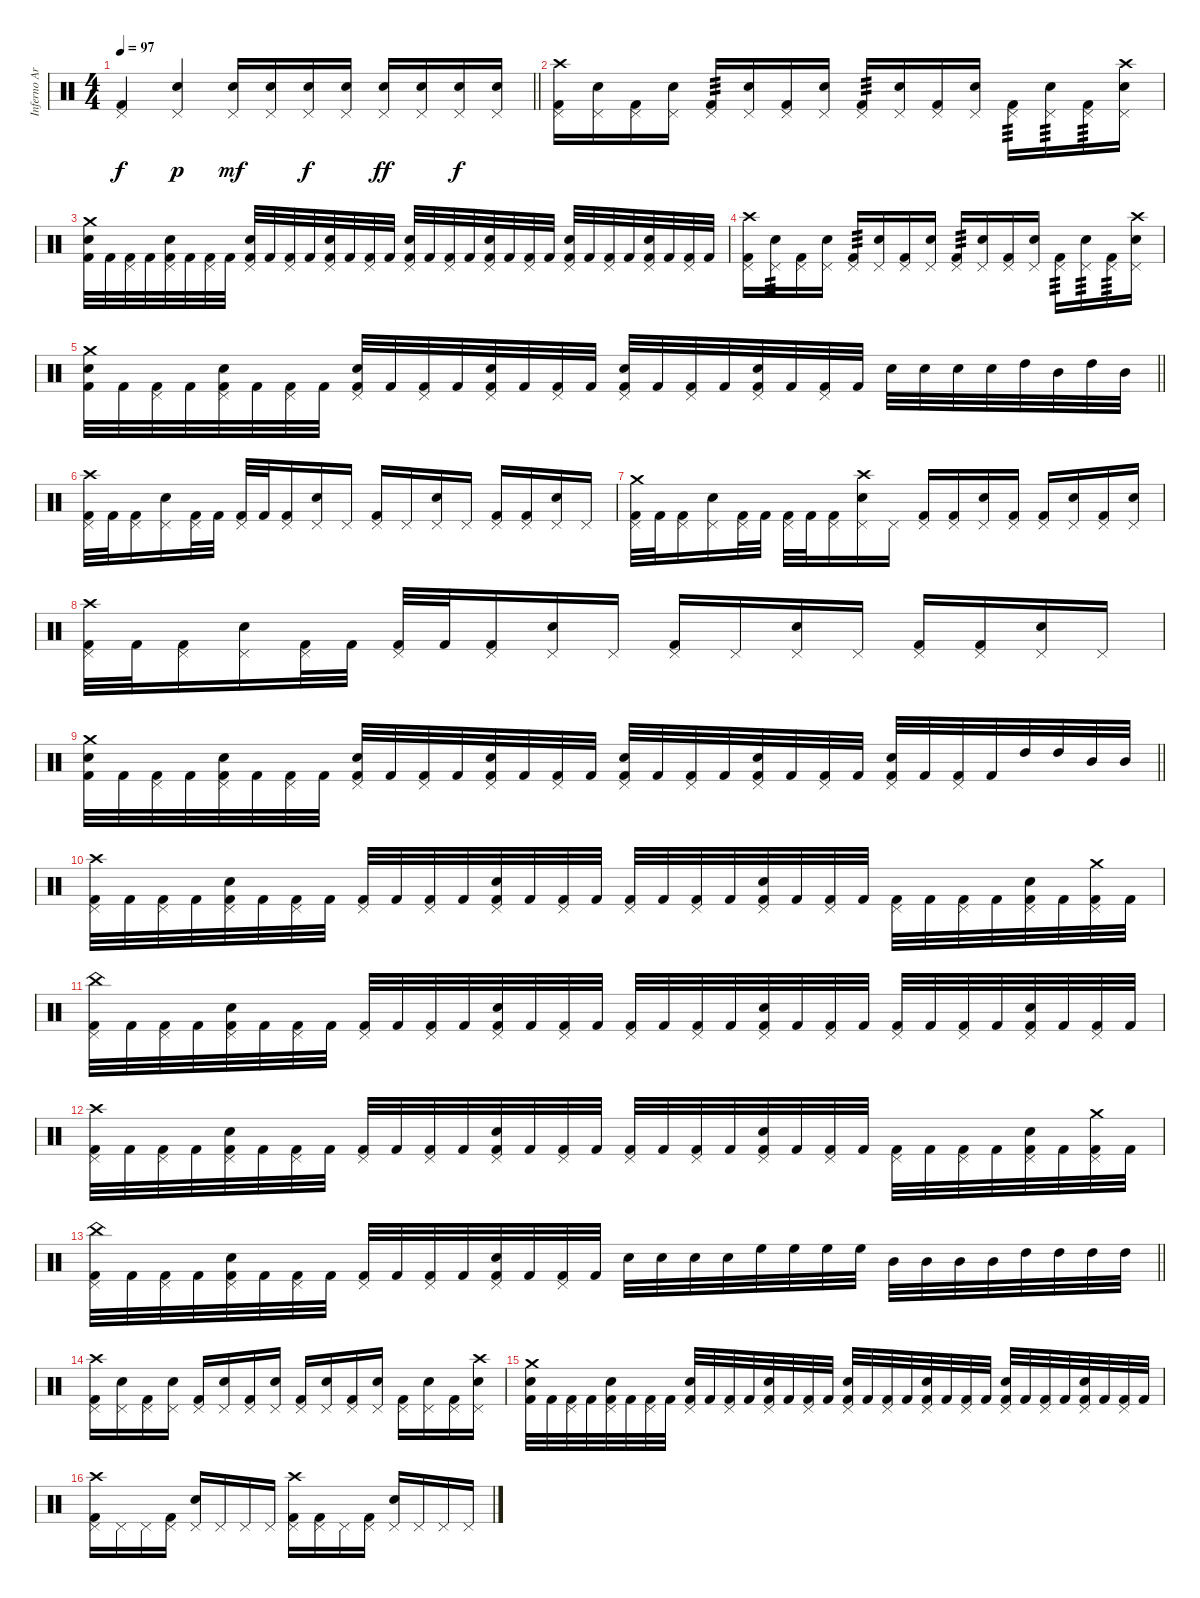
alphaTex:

\track ("Inferno Art" "Inferno Ar") {instrument percussion bank 7}
\staff {score}
\articulation defaults
\ts (4 4)
\tempo 97
\clef neutral
\barLineRight lightlight
\ks c
("Pedal Hi-Hat (hit)" "Kick (hit) 2").4{dy f} ("Pedal Hi-Hat (hit)" "Electric Snare (hit)").4{dy p} ("Pedal Hi-Hat (hit)" "Electric Snare (hit)").16{dy mf} ("Pedal Hi-Hat (hit)" "Electric Snare (hit)").16 ("Pedal Hi-Hat (hit)" "Electric Snare (hit)").16{dy f} ("Pedal Hi-Hat (hit)" "Electric Snare (hit)").16 ("Pedal Hi-Hat (hit)" "Electric Snare (hit)").16{dy ff} ("Pedal Hi-Hat (hit)" "Electric Snare (hit)").16 ("Pedal Hi-Hat (hit)" "Electric Snare (hit)").16{dy f} ("Pedal Hi-Hat (hit)" "Electric Snare (hit)").16 |
("Pedal Hi-Hat (hit)" "Kick (hit) 2" "Crash high (hit)").16 ("Pedal Hi-Hat (hit)" "Electric Snare (hit)").16 ("Pedal Hi-Hat (hit)" "Kick (hit) 2").16 ("Pedal Hi-Hat (hit)" "Electric Snare (hit)").16 ("Pedal Hi-Hat (hit)" "Kick (hit) 2").16{tp 3} ("Pedal Hi-Hat (hit)" "Electric Snare (hit)").16 ("Pedal Hi-Hat (hit)" "Kick (hit) 2").16 ("Pedal Hi-Hat (hit)" "Electric Snare (hit)").16 ("Pedal Hi-Hat (hit)" "Kick (hit) 2").16{tp 3} ("Pedal Hi-Hat (hit)" "Electric Snare (hit)").16 ("Pedal Hi-Hat (hit)" "Kick (hit) 2").16 ("Pedal Hi-Hat (hit)" "Electric Snare (hit)").16 ("Pedal Hi-Hat (hit)" "Kick (hit) 2").16{tp 3} ("Pedal Hi-Hat (hit)" "Electric Snare (hit)").16{tp 3} ("Pedal Hi-Hat (hit)" "Kick (hit) 2").16{tp 3} ("Pedal Hi-Hat (hit)" "Electric Snare (hit)" "Crash high (hit)").16 |
("Electric Snare (hit)" "Kick (hit) 2" "Crash medium (hit)").32 "Kick (hit) 2".32 ("Pedal Hi-Hat (hit)" "Kick (hit) 2").32 "Kick (hit) 2".32 ("Pedal Hi-Hat (hit)" "Electric Snare (hit)" "Kick (hit) 2").32 "Kick (hit) 2".32 ("Pedal Hi-Hat (hit)" "Kick (hit) 2").32 "Kick (hit) 2".32 ("Pedal Hi-Hat (hit)" "Electric Snare (hit)" "Kick (hit) 2").32 "Kick (hit) 2".32 ("Pedal Hi-Hat (hit)" "Kick (hit) 2").32 "Kick (hit) 2".32 ("Pedal Hi-Hat (hit)" "Electric Snare (hit)" "Kick (hit) 2").32 "Kick (hit) 2".32 ("Pedal Hi-Hat (hit)" "Kick (hit) 2").32 "Kick (hit) 2".32 ("Pedal Hi-Hat (hit)" "Electric Snare (hit)" "Kick (hit) 2").32 "Kick (hit) 2".32 ("Pedal Hi-Hat (hit)" "Kick (hit) 2").32 "Kick (hit) 2".32 ("Pedal Hi-Hat (hit)" "Electric Snare (hit)" "Kick (hit) 2").32 "Kick (hit) 2".32 ("Pedal Hi-Hat (hit)" "Kick (hit) 2").32 "Kick (hit) 2".32 ("Pedal Hi-Hat (hit)" "Electric Snare (hit)" "Kick (hit) 2").32 "Kick (hit) 2".32 ("Pedal Hi-Hat (hit)" "Kick (hit) 2").32 "Kick (hit) 2".32 ("Pedal Hi-Hat (hit)" "Electric Snare (hit)" "Kick (hit) 2").32 "Kick (hit) 2".32 ("Pedal Hi-Hat (hit)" "Kick (hit) 2").32 "Kick (hit) 2".32 |
("Pedal Hi-Hat (hit)" "Kick (hit) 2" "Crash high (hit)").16 ("Pedal Hi-Hat (hit)" "Electric Snare (hit)").16{tp 3} ("Pedal Hi-Hat (hit)" "Kick (hit) 2").16 ("Pedal Hi-Hat (hit)" "Electric Snare (hit)").16 ("Pedal Hi-Hat (hit)" "Kick (hit) 2").16{tp 3} ("Pedal Hi-Hat (hit)" "Electric Snare (hit)").16 ("Pedal Hi-Hat (hit)" "Kick (hit) 2").16 ("Pedal Hi-Hat (hit)" "Electric Snare (hit)").16 ("Pedal Hi-Hat (hit)" "Kick (hit) 2").16{tp 3} ("Pedal Hi-Hat (hit)" "Electric Snare (hit)").16 ("Pedal Hi-Hat (hit)" "Kick (hit) 2").16 ("Pedal Hi-Hat (hit)" "Electric Snare (hit)").16 ("Pedal Hi-Hat (hit)" "Kick (hit) 2").16{tp 3} ("Pedal Hi-Hat (hit)" "Electric Snare (hit)").16{tp 3} ("Pedal Hi-Hat (hit)" "Kick (hit) 2").16{tp 3} ("Pedal Hi-Hat (hit)" "Electric Snare (hit)" "Crash high (hit)").16 |
\barLineRight lightlight
("Electric Snare (hit)" "Kick (hit) 2" "Crash medium (hit)").32 "Kick (hit) 2".32 ("Pedal Hi-Hat (hit)" "Kick (hit) 2").32 "Kick (hit) 2".32 ("Pedal Hi-Hat (hit)" "Electric Snare (hit)" "Kick (hit) 2").32 "Kick (hit) 2".32 ("Pedal Hi-Hat (hit)" "Kick (hit) 2").32 "Kick (hit) 2".32 ("Pedal Hi-Hat (hit)" "Electric Snare (hit)" "Kick (hit) 2").32 "Kick (hit) 2".32 ("Pedal Hi-Hat (hit)" "Kick (hit) 2").32 "Kick (hit) 2".32 ("Pedal Hi-Hat (hit)" "Electric Snare (hit)" "Kick (hit) 2").32 "Kick (hit) 2".32 ("Pedal Hi-Hat (hit)" "Kick (hit) 2").32 "Kick (hit) 2".32 ("Pedal Hi-Hat (hit)" "Electric Snare (hit)" "Kick (hit) 2").32 "Kick (hit) 2".32 ("Pedal Hi-Hat (hit)" "Kick (hit) 2").32 "Kick (hit) 2".32 ("Pedal Hi-Hat (hit)" "Electric Snare (hit)" "Kick (hit) 2").32 "Kick (hit) 2".32 ("Pedal Hi-Hat (hit)" "Kick (hit) 2").32 "Kick (hit) 2".32 "Electric Snare (hit)".32 "Electric Snare (hit)".32 "Electric Snare (hit)".32 "Electric Snare (hit)".32 "High Tom (hit)".32 "Mid Tom (hit)".32 "High Tom (hit)".32 "Mid Tom (hit)".32 |
("Pedal Hi-Hat (hit)" "Kick (hit) 2" "Crash high (hit)").32 "Kick (hit) 2".32 ("Pedal Hi-Hat (hit)" "Kick (hit) 2").16 ("Pedal Hi-Hat (hit)" "Electric Snare (hit)").16 ("Pedal Hi-Hat (hit)" "Kick (hit) 2").32 "Kick (hit) 2".32 ("Pedal Hi-Hat (hit)" "Kick (hit) 2").32 "Kick (hit) 2".32 ("Pedal Hi-Hat (hit)" "Kick (hit) 2").16 ("Pedal Hi-Hat (hit)" "Electric Snare (hit)").16 "Pedal Hi-Hat (hit)".16 ("Pedal Hi-Hat (hit)" "Kick (hit) 2").16 "Pedal Hi-Hat (hit)".16 ("Pedal Hi-Hat (hit)" "Electric Snare (hit)").16 "Pedal Hi-Hat (hit)".16 ("Pedal Hi-Hat (hit)" "Kick (hit) 2").16 ("Pedal Hi-Hat (hit)" "Kick (hit) 2").16 ("Pedal Hi-Hat (hit)" "Electric Snare (hit)").16 "Pedal Hi-Hat (hit)".16 |
("Pedal Hi-Hat (hit)" "Kick (hit) 2" "Crash medium (hit)").32 "Kick (hit) 2".32 ("Pedal Hi-Hat (hit)" "Kick (hit) 2").16 ("Pedal Hi-Hat (hit)" "Electric Snare (hit)").16 ("Pedal Hi-Hat (hit)" "Kick (hit) 2").32 "Kick (hit) 2".32 ("Pedal Hi-Hat (hit)" "Kick (hit) 2").32 "Kick (hit) 2".32 ("Pedal Hi-Hat (hit)" "Kick (hit) 2").16 ("Pedal Hi-Hat (hit)" "Electric Snare (hit)" "Crash high (hit)").16 "Pedal Hi-Hat (hit)".16 ("Pedal Hi-Hat (hit)" "Kick (hit) 2").16 ("Pedal Hi-Hat (hit)" "Kick (hit) 2").16 ("Pedal Hi-Hat (hit)" "Electric Snare (hit)").16 ("Pedal Hi-Hat (hit)" "Kick (hit) 2").16 ("Pedal Hi-Hat (hit)" "Kick (hit) 2").16 ("Pedal Hi-Hat (hit)" "Electric Snare (hit)").16 ("Pedal Hi-Hat (hit)" "Kick (hit) 2").16 ("Pedal Hi-Hat (hit)" "Electric Snare (hit)").16 |
("Pedal Hi-Hat (hit)" "Kick (hit) 2" "Crash high (hit)").32 "Kick (hit) 2".32 ("Pedal Hi-Hat (hit)" "Kick (hit) 2").16 ("Pedal Hi-Hat (hit)" "Electric Snare (hit)").16 ("Pedal Hi-Hat (hit)" "Kick (hit) 2").32 "Kick (hit) 2".32 ("Pedal Hi-Hat (hit)" "Kick (hit) 2").32 "Kick (hit) 2".32 ("Pedal Hi-Hat (hit)" "Kick (hit) 2").16 ("Pedal Hi-Hat (hit)" "Electric Snare (hit)").16 "Pedal Hi-Hat (hit)".16 ("Pedal Hi-Hat (hit)" "Kick (hit) 2").16 "Pedal Hi-Hat (hit)".16 ("Pedal Hi-Hat (hit)" "Electric Snare (hit)").16 "Pedal Hi-Hat (hit)".16 ("Pedal Hi-Hat (hit)" "Kick (hit) 2").16 ("Pedal Hi-Hat (hit)" "Kick (hit) 2").16 ("Pedal Hi-Hat (hit)" "Electric Snare (hit)").16 "Pedal Hi-Hat (hit)".16 |
\barLineRight lightlight
("Electric Snare (hit)" "Kick (hit) 2" "Crash medium (hit)").32 "Kick (hit) 2".32 ("Pedal Hi-Hat (hit)" "Kick (hit) 2").32 "Kick (hit) 2".32 ("Pedal Hi-Hat (hit)" "Electric Snare (hit)" "Kick (hit) 2").32 "Kick (hit) 2".32 ("Pedal Hi-Hat (hit)" "Kick (hit) 2").32 "Kick (hit) 2".32 ("Pedal Hi-Hat (hit)" "Electric Snare (hit)" "Kick (hit) 2").32 "Kick (hit) 2".32 ("Pedal Hi-Hat (hit)" "Kick (hit) 2").32 "Kick (hit) 2".32 ("Pedal Hi-Hat (hit)" "Electric Snare (hit)" "Kick (hit) 2").32 "Kick (hit) 2".32 ("Pedal Hi-Hat (hit)" "Kick (hit) 2").32 "Kick (hit) 2".32 ("Pedal Hi-Hat (hit)" "Electric Snare (hit)" "Kick (hit) 2").32 "Kick (hit) 2".32 ("Pedal Hi-Hat (hit)" "Kick (hit) 2").32 "Kick (hit) 2".32 ("Pedal Hi-Hat (hit)" "Electric Snare (hit)" "Kick (hit) 2").32 "Kick (hit) 2".32 ("Pedal Hi-Hat (hit)" "Kick (hit) 2").32 "Kick (hit) 2".32 ("Pedal Hi-Hat (hit)" "Electric Snare (hit)" "Kick (hit) 2").32 "Kick (hit) 2".32 ("Pedal Hi-Hat (hit)" "Kick (hit) 2").32 "Kick (hit) 2".32 "High Tom (hit)".32 "High Tom (hit)".32 "Mid Tom (hit)".32 "Mid Tom (hit)".32 |
("Pedal Hi-Hat (hit)" "Kick (hit) 2" "Crash high (hit)").32 "Kick (hit) 2".32 ("Pedal Hi-Hat (hit)" "Kick (hit) 2").32 "Kick (hit) 2".32 ("Pedal Hi-Hat (hit)" "Electric Snare (hit)" "Kick (hit) 2").32 "Kick (hit) 2".32 ("Pedal Hi-Hat (hit)" "Kick (hit) 2").32 "Kick (hit) 2".32 ("Pedal Hi-Hat (hit)" "Kick (hit) 2").32 "Kick (hit) 2".32 ("Pedal Hi-Hat (hit)" "Kick (hit) 2").32 "Kick (hit) 2".32 ("Pedal Hi-Hat (hit)" "Electric Snare (hit)" "Kick (hit) 2").32 "Kick (hit) 2".32 ("Pedal Hi-Hat (hit)" "Kick (hit) 2").32 "Kick (hit) 2".32 ("Pedal Hi-Hat (hit)" "Kick (hit) 2").32 "Kick (hit) 2".32 ("Pedal Hi-Hat (hit)" "Kick (hit) 2").32 "Kick (hit) 2".32 ("Pedal Hi-Hat (hit)" "Electric Snare (hit)" "Kick (hit) 2").32 "Kick (hit) 2".32 ("Pedal Hi-Hat (hit)" "Kick (hit) 2").32 "Kick (hit) 2".32 ("Pedal Hi-Hat (hit)" "Kick (hit) 2").32 "Kick (hit) 2".32 ("Pedal Hi-Hat (hit)" "Kick (hit) 2").32 "Kick (hit) 2".32 ("Pedal Hi-Hat (hit)" "Electric Snare (hit)" "Kick (hit) 2").32 "Kick (hit) 2".32 ("Pedal Hi-Hat (hit)" "Kick (hit) 2" "Crash medium (hit)").32 "Kick (hit) 2".32 |
("Pedal Hi-Hat (hit)" "Kick (hit) 2" "China (hit)").32 "Kick (hit) 2".32 ("Pedal Hi-Hat (hit)" "Kick (hit) 2").32 "Kick (hit) 2".32 ("Pedal Hi-Hat (hit)" "Electric Snare (hit)" "Kick (hit) 2").32 "Kick (hit) 2".32 ("Pedal Hi-Hat (hit)" "Kick (hit) 2").32 "Kick (hit) 2".32 ("Pedal Hi-Hat (hit)" "Kick (hit) 2").32 "Kick (hit) 2".32 ("Pedal Hi-Hat (hit)" "Kick (hit) 2").32 "Kick (hit) 2".32 ("Pedal Hi-Hat (hit)" "Electric Snare (hit)" "Kick (hit) 2").32 "Kick (hit) 2".32 ("Pedal Hi-Hat (hit)" "Kick (hit) 2").32 "Kick (hit) 2".32 ("Pedal Hi-Hat (hit)" "Kick (hit) 2").32 "Kick (hit) 2".32 ("Pedal Hi-Hat (hit)" "Kick (hit) 2").32 "Kick (hit) 2".32 ("Pedal Hi-Hat (hit)" "Electric Snare (hit)" "Kick (hit) 2").32 "Kick (hit) 2".32 ("Pedal Hi-Hat (hit)" "Kick (hit) 2").32 "Kick (hit) 2".32 ("Pedal Hi-Hat (hit)" "Kick (hit) 2").32 "Kick (hit) 2".32 ("Pedal Hi-Hat (hit)" "Kick (hit) 2").32 "Kick (hit) 2".32 ("Pedal Hi-Hat (hit)" "Electric Snare (hit)" "Kick (hit) 2").32 "Kick (hit) 2".32 ("Pedal Hi-Hat (hit)" "Kick (hit) 2").32 "Kick (hit) 2".32 |
("Pedal Hi-Hat (hit)" "Kick (hit) 2" "Crash high (hit)").32 "Kick (hit) 2".32 ("Pedal Hi-Hat (hit)" "Kick (hit) 2").32 "Kick (hit) 2".32 ("Pedal Hi-Hat (hit)" "Electric Snare (hit)" "Kick (hit) 2").32 "Kick (hit) 2".32 ("Pedal Hi-Hat (hit)" "Kick (hit) 2").32 "Kick (hit) 2".32 ("Pedal Hi-Hat (hit)" "Kick (hit) 2").32 "Kick (hit) 2".32 ("Pedal Hi-Hat (hit)" "Kick (hit) 2").32 "Kick (hit) 2".32 ("Pedal Hi-Hat (hit)" "Electric Snare (hit)" "Kick (hit) 2").32 "Kick (hit) 2".32 ("Pedal Hi-Hat (hit)" "Kick (hit) 2").32 "Kick (hit) 2".32 ("Pedal Hi-Hat (hit)" "Kick (hit) 2").32 "Kick (hit) 2".32 ("Pedal Hi-Hat (hit)" "Kick (hit) 2").32 "Kick (hit) 2".32 ("Pedal Hi-Hat (hit)" "Electric Snare (hit)" "Kick (hit) 2").32 "Kick (hit) 2".32 ("Pedal Hi-Hat (hit)" "Kick (hit) 2").32 "Kick (hit) 2".32 ("Pedal Hi-Hat (hit)" "Kick (hit) 2").32 "Kick (hit) 2".32 ("Pedal Hi-Hat (hit)" "Kick (hit) 2").32 "Kick (hit) 2".32 ("Pedal Hi-Hat (hit)" "Electric Snare (hit)" "Kick (hit) 2").32 "Kick (hit) 2".32 ("Pedal Hi-Hat (hit)" "Kick (hit) 2" "Crash medium (hit)").32 "Kick (hit) 2".32 |
\barLineRight lightlight
("Pedal Hi-Hat (hit)" "Kick (hit) 2" "China (hit)").32 "Kick (hit) 2".32 ("Pedal Hi-Hat (hit)" "Kick (hit) 2").32 "Kick (hit) 2".32 ("Pedal Hi-Hat (hit)" "Electric Snare (hit)" "Kick (hit) 2").32 "Kick (hit) 2".32 ("Pedal Hi-Hat (hit)" "Kick (hit) 2").32 "Kick (hit) 2".32 ("Pedal Hi-Hat (hit)" "Kick (hit) 2").32 "Kick (hit) 2".32 ("Pedal Hi-Hat (hit)" "Kick (hit) 2").32 "Kick (hit) 2".32 ("Pedal Hi-Hat (hit)" "Electric Snare (hit)" "Kick (hit) 2").32 "Kick (hit) 2".32 ("Pedal Hi-Hat (hit)" "Kick (hit) 2").32 "Kick (hit) 2".32 "Electric Snare (hit)".32 "Electric Snare (hit)".32 "Electric Snare (hit)".32 "Electric Snare (hit)".32 "High Floor Tom (hit)".32 "High Floor Tom (hit)".32 "High Floor Tom (hit)".32 "High Floor Tom (hit)".32 "Mid Tom (hit)".32 "Mid Tom (hit)".32 "Mid Tom (hit)".32 "Mid Tom (hit)".32 "High Tom (hit)".32 "High Tom (hit)".32 "High Tom (hit)".32 "High Tom (hit)".32 |
("Pedal Hi-Hat (hit)" "Kick (hit) 2" "Crash high (hit)").16 ("Pedal Hi-Hat (hit)" "Electric Snare (hit)").16 ("Pedal Hi-Hat (hit)" "Kick (hit) 2").16 ("Pedal Hi-Hat (hit)" "Electric Snare (hit)").16 ("Pedal Hi-Hat (hit)" "Kick (hit) 2").16 ("Pedal Hi-Hat (hit)" "Electric Snare (hit)").16 ("Pedal Hi-Hat (hit)" "Kick (hit) 2").16 ("Pedal Hi-Hat (hit)" "Electric Snare (hit)").16 ("Pedal Hi-Hat (hit)" "Kick (hit) 2").16 ("Pedal Hi-Hat (hit)" "Electric Snare (hit)").16 ("Pedal Hi-Hat (hit)" "Kick (hit) 2").16 ("Pedal Hi-Hat (hit)" "Electric Snare (hit)").16 ("Pedal Hi-Hat (hit)" "Kick (hit) 2").16 ("Pedal Hi-Hat (hit)" "Electric Snare (hit)").16 ("Pedal Hi-Hat (hit)" "Kick (hit) 2").16 ("Pedal Hi-Hat (hit)" "Electric Snare (hit)" "Crash high (hit)").16 |
("Electric Snare (hit)" "Kick (hit) 2" "Crash medium (hit)").32 "Kick (hit) 2".32 ("Pedal Hi-Hat (hit)" "Kick (hit) 2").32 "Kick (hit) 2".32 ("Pedal Hi-Hat (hit)" "Electric Snare (hit)" "Kick (hit) 2").32 "Kick (hit) 2".32 ("Pedal Hi-Hat (hit)" "Kick (hit) 2").32 "Kick (hit) 2".32 ("Pedal Hi-Hat (hit)" "Electric Snare (hit)" "Kick (hit) 2").32 "Kick (hit) 2".32 ("Pedal Hi-Hat (hit)" "Kick (hit) 2").32 "Kick (hit) 2".32 ("Pedal Hi-Hat (hit)" "Electric Snare (hit)" "Kick (hit) 2").32 "Kick (hit) 2".32 ("Pedal Hi-Hat (hit)" "Kick (hit) 2").32 "Kick (hit) 2".32 ("Pedal Hi-Hat (hit)" "Electric Snare (hit)" "Kick (hit) 2").32 "Kick (hit) 2".32 ("Pedal Hi-Hat (hit)" "Kick (hit) 2").32 "Kick (hit) 2".32 ("Pedal Hi-Hat (hit)" "Electric Snare (hit)" "Kick (hit) 2").32 "Kick (hit) 2".32 ("Pedal Hi-Hat (hit)" "Kick (hit) 2").32 "Kick (hit) 2".32 ("Pedal Hi-Hat (hit)" "Electric Snare (hit)" "Kick (hit) 2").32 "Kick (hit) 2".32 ("Pedal Hi-Hat (hit)" "Kick (hit) 2").32 "Kick (hit) 2".32 ("Pedal Hi-Hat (hit)" "Electric Snare (hit)" "Kick (hit) 2").32 "Kick (hit) 2".32 ("Pedal Hi-Hat (hit)" "Kick (hit) 2").32 "Kick (hit) 2".32 |
("Pedal Hi-Hat (hit)" "Kick (hit) 2" "Crash high (hit)").16 "Pedal Hi-Hat (hit)".16 "Pedal Hi-Hat (hit)".16 ("Pedal Hi-Hat (hit)" "Kick (hit) 2").16 ("Pedal Hi-Hat (hit)" "Electric Snare (hit)").16 "Pedal Hi-Hat (hit)".16 "Pedal Hi-Hat (hit)".16 "Pedal Hi-Hat (hit)".16 ("Pedal Hi-Hat (hit)" "Kick (hit) 2" "Crash high (hit)").16 ("Pedal Hi-Hat (hit)" "Kick (hit) 2").16 "Pedal Hi-Hat (hit)".16 ("Pedal Hi-Hat (hit)" "Kick (hit) 2").16 ("Pedal Hi-Hat (hit)" "Electric Snare (hit)").16 "Pedal Hi-Hat (hit)".16 "Pedal Hi-Hat (hit)".16 "Pedal Hi-Hat (hit)".16
